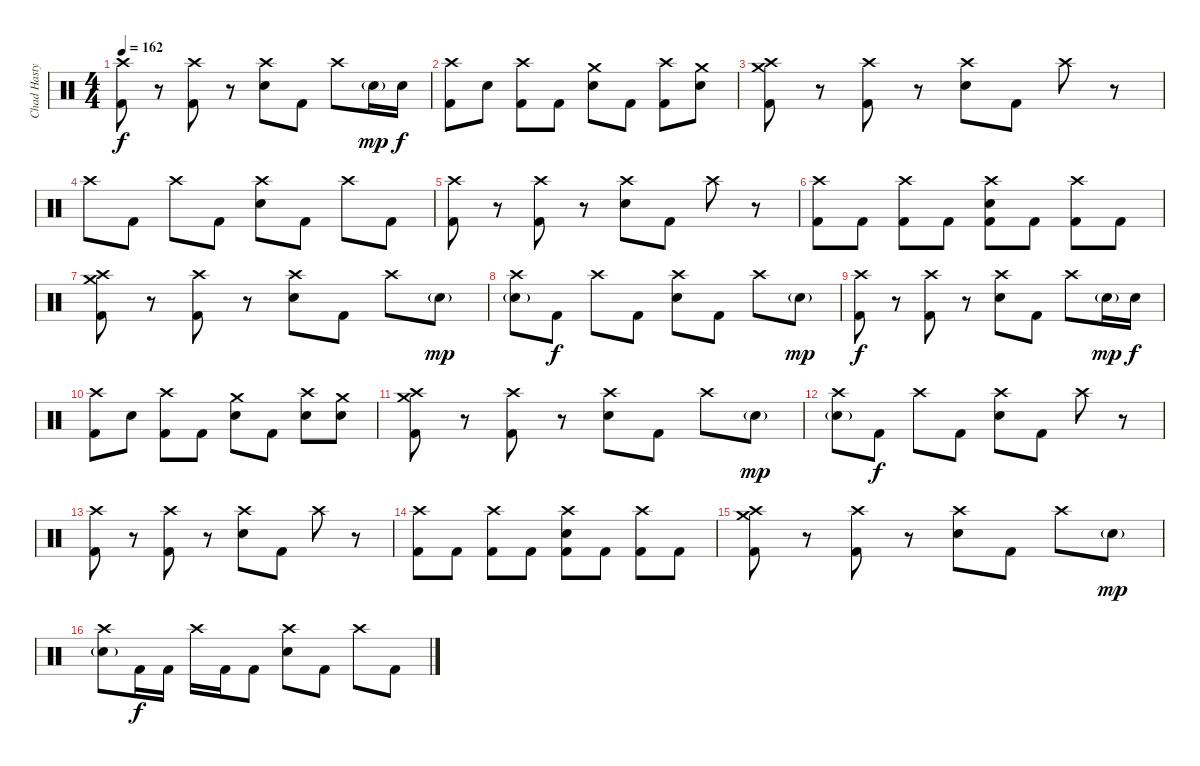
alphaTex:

\track ("Chad Hasty" "Chad Hasty") {instrument percussion}
\staff {score}
\articulation defaults
\ts (4 4)
\tempo 162
\clef neutral
\ks c
("Crash high (hit)" "Kick (hit) 2").8{dy f} r.8 ("Crash high (hit)" "Kick (hit) 2").8 r.8 ("Crash high (hit)" "Snare (hit) 2").8 "Kick (hit) 2".8 "Crash high (hit)".8 "Snare (hit) 2"{g}.16{dy mp} "Snare (hit) 2".16{dy f} |
("Crash high (hit)" "Kick (hit) 2").8 "Snare (hit) 2".8 ("Crash high (hit)" "Kick (hit) 2").8 "Kick (hit) 2".8 ("Crash medium (hit)" "Snare (hit) 2").8 "Kick (hit) 2".8 ("Crash high (hit)" "Kick (hit) 2").8 ("Crash medium (hit)" "Snare (hit) 2").8 |
("Crash medium (hit)" "Crash high (hit)" "Kick (hit) 2").8 r.8 ("Crash high (hit)" "Kick (hit) 2").8 r.8 ("Crash high (hit)" "Snare (hit) 2").8 "Kick (hit) 2".8 "Crash high (hit)".8 r.8 |
"Crash high (hit)".8 "Kick (hit) 2".8 "Crash high (hit)".8 "Kick (hit) 2".8 ("Crash high (hit)" "Snare (hit) 2").8 "Kick (hit) 2".8 "Crash high (hit)".8 "Kick (hit) 2".8 |
("Crash high (hit)" "Kick (hit) 2").8 r.8 ("Crash high (hit)" "Kick (hit) 2").8 r.8 ("Crash high (hit)" "Snare (hit) 2").8 "Kick (hit) 2".8 "Crash high (hit)".8 r.8 |
("Crash high (hit)" "Kick (hit) 2").8 "Kick (hit) 2".8 ("Crash high (hit)" "Kick (hit) 2").8 "Kick (hit) 2".8 ("Crash high (hit)" "Snare (hit) 2" "Kick (hit) 2").8 "Kick (hit) 2".8 ("Crash high (hit)" "Kick (hit) 2").8 "Kick (hit) 2".8 |
("Crash medium (hit)" "Crash high (hit)" "Kick (hit) 2").8 r.8 ("Crash high (hit)" "Kick (hit) 2").8 r.8 ("Crash high (hit)" "Snare (hit) 2").8 "Kick (hit) 2".8 "Crash high (hit)".8 "Snare (hit) 2"{g}.8{dy mp} |
("Crash high (hit)" "Snare (hit) 2"{g}).8 "Kick (hit) 2".8{dy f} "Crash high (hit)".8 "Kick (hit) 2".8 ("Crash high (hit)" "Snare (hit) 2").8 "Kick (hit) 2".8 "Crash high (hit)".8 "Snare (hit) 2"{g}.8{dy mp} |
("Crash high (hit)" "Kick (hit) 2").8{dy f} r.8 ("Crash high (hit)" "Kick (hit) 2").8 r.8 ("Crash high (hit)" "Snare (hit) 2").8 "Kick (hit) 2".8 "Crash high (hit)".8 "Snare (hit) 2"{g}.16{dy mp} "Snare (hit) 2".16{dy f} |
("Crash high (hit)" "Kick (hit) 2").8 "Snare (hit) 2".8 ("Crash high (hit)" "Kick (hit) 2").8 "Kick (hit) 2".8 ("Crash medium (hit)" "Snare (hit) 2").8 "Kick (hit) 2".8 ("Crash high (hit)" "Snare (hit) 2").8 ("Crash medium (hit)" "Snare (hit) 2").8 |
("Crash medium (hit)" "Crash high (hit)" "Kick (hit) 2").8 r.8 ("Crash high (hit)" "Kick (hit) 2").8 r.8 ("Crash high (hit)" "Snare (hit) 2").8 "Kick (hit) 2".8 "Crash high (hit)".8 "Snare (hit) 2"{g}.8{dy mp} |
("Crash high (hit)" "Snare (hit) 2"{g}).8 "Kick (hit) 2".8{dy f} "Crash high (hit)".8 "Kick (hit) 2".8 ("Crash high (hit)" "Snare (hit) 2").8 "Kick (hit) 2".8 "Crash high (hit)".8 r.8 |
("Crash high (hit)" "Kick (hit) 2").8 r.8 ("Crash high (hit)" "Kick (hit) 2").8 r.8 ("Crash high (hit)" "Snare (hit) 2").8 "Kick (hit) 2".8 "Crash high (hit)".8 r.8 |
("Crash high (hit)" "Kick (hit) 2").8 "Kick (hit) 2".8 ("Crash high (hit)" "Kick (hit) 2").8 "Kick (hit) 2".8 ("Crash high (hit)" "Snare (hit) 2" "Kick (hit) 2").8 "Kick (hit) 2".8 ("Crash high (hit)" "Kick (hit) 2").8 "Kick (hit) 2".8 |
("Crash medium (hit)" "Crash high (hit)" "Kick (hit) 2").8 r.8 ("Crash high (hit)" "Kick (hit) 2").8 r.8 ("Crash high (hit)" "Snare (hit) 2").8 "Kick (hit) 2".8 "Crash high (hit)".8 "Snare (hit) 2"{g}.8{dy mp} |
("Crash high (hit)" "Snare (hit) 2"{g}).8 "Kick (hit) 2".16{dy f} "Kick (hit) 2".16 "Crash high (hit)".16 "Kick (hit) 2".16 "Kick (hit) 2".8 ("Crash high (hit)" "Snare (hit) 2").8 "Kick (hit) 2".8 "Crash high (hit)".8 "Kick (hit) 2".8
